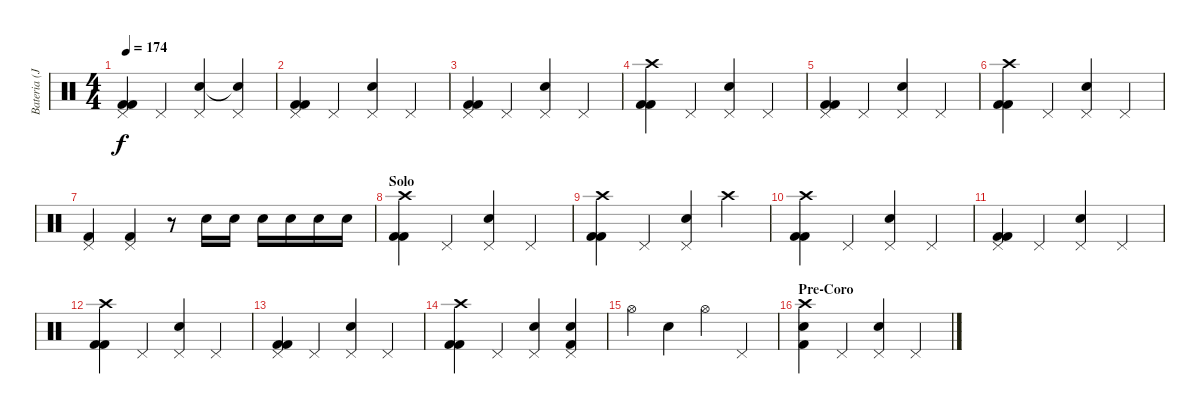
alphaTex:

\track ("Bateria (Jefrey Fischman)" "Bateria (J") {instrument percussion}
\staff {score}
\articulation defaults
\ts (4 4)
\tempo 174
\clef neutral
\ks c
("Pedal Hi-Hat (hit)" "Kick (hit) 2" "Kick (hit) 2").4{dy f} "Pedal Hi-Hat (hit)".4 ("Pedal Hi-Hat (hit)" "Snare (hit) 2").4 ("Pedal Hi-Hat (hit)" "Snare (hit)"{t}).4 |
("Pedal Hi-Hat (hit)" "Kick (hit) 2" "Kick (hit) 2").4 "Pedal Hi-Hat (hit)".4 ("Pedal Hi-Hat (hit)" "Snare (hit) 2").4 "Pedal Hi-Hat (hit)".4 |
("Pedal Hi-Hat (hit)" "Kick (hit) 2" "Kick (hit) 2").4 "Pedal Hi-Hat (hit)".4 ("Pedal Hi-Hat (hit)" "Snare (hit) 2").4 "Pedal Hi-Hat (hit)".4 |
("Crash high (hit)" "Kick (hit) 2" "Kick (hit) 2").4 "Pedal Hi-Hat (hit)".4 ("Pedal Hi-Hat (hit)" "Snare (hit) 2").4 "Pedal Hi-Hat (hit)".4 |
("Pedal Hi-Hat (hit)" "Kick (hit) 2" "Kick (hit) 2").4 "Pedal Hi-Hat (hit)".4 ("Pedal Hi-Hat (hit)" "Snare (hit) 2").4 "Pedal Hi-Hat (hit)".4 |
("Crash high (hit)" "Kick (hit) 2" "Kick (hit) 2").4 "Pedal Hi-Hat (hit)".4 ("Pedal Hi-Hat (hit)" "Snare (hit) 2").4 "Pedal Hi-Hat (hit)".4 |
("Pedal Hi-Hat (hit)" "Kick (hit) 2").4 ("Pedal Hi-Hat (hit)" "Kick (hit) 2").4 r.8 "Snare (hit) 2".16 "Snare (hit) 2".16 "Snare (hit) 2".16 "Snare (hit) 2".16 "Snare (hit) 2".16 "Snare (hit) 2".16 |
\section ("" "Solo")
("Crash high (hit)" "Kick (hit) 2" "Kick (hit) 2").4 "Pedal Hi-Hat (hit)".4 ("Pedal Hi-Hat (hit)" "Snare (hit) 2").4 "Pedal Hi-Hat (hit)".4 |
("Crash high (hit)" "Kick (hit) 2" "Kick (hit) 2").4 "Pedal Hi-Hat (hit)".4 ("Pedal Hi-Hat (hit)" "Snare (hit) 2").4 "Crash high (hit)".4 |
("Crash high (hit)" "Kick (hit) 2" "Kick (hit) 2").4 "Pedal Hi-Hat (hit)".4 ("Pedal Hi-Hat (hit)" "Snare (hit) 2").4 "Pedal Hi-Hat (hit)".4 |
("Pedal Hi-Hat (hit)" "Kick (hit) 2" "Kick (hit) 2").4 "Pedal Hi-Hat (hit)".4 ("Pedal Hi-Hat (hit)" "Snare (hit) 2").4 "Pedal Hi-Hat (hit)".4 |
("Crash high (hit)" "Kick (hit) 2" "Kick (hit) 2").4 "Pedal Hi-Hat (hit)".4 ("Pedal Hi-Hat (hit)" "Snare (hit) 2").4 "Pedal Hi-Hat (hit)".4 |
("Pedal Hi-Hat (hit)" "Kick (hit) 2" "Kick (hit) 2").4 "Pedal Hi-Hat (hit)".4 ("Pedal Hi-Hat (hit)" "Snare (hit) 2").4 "Pedal Hi-Hat (hit)".4 |
("Crash high (hit)" "Kick (hit) 2" "Kick (hit) 2").4 "Pedal Hi-Hat (hit)".4 ("Pedal Hi-Hat (hit)" "Snare (hit) 2").4 ("Pedal Hi-Hat (hit)" "Kick (hit) 2" "Snare (hit) 2").4 |
"Hi-Hat (open)".4 "Snare (hit) 2".4 "Hi-Hat (open)".4 "Pedal Hi-Hat (hit)".4 |
\section ("" "Pre-Coro")
("Crash high (hit)" "Snare (hit) 2" "Kick (hit) 2").4 "Pedal Hi-Hat (hit)".4 ("Pedal Hi-Hat (hit)" "Snare (hit) 2").4 "Pedal Hi-Hat (hit)".4
